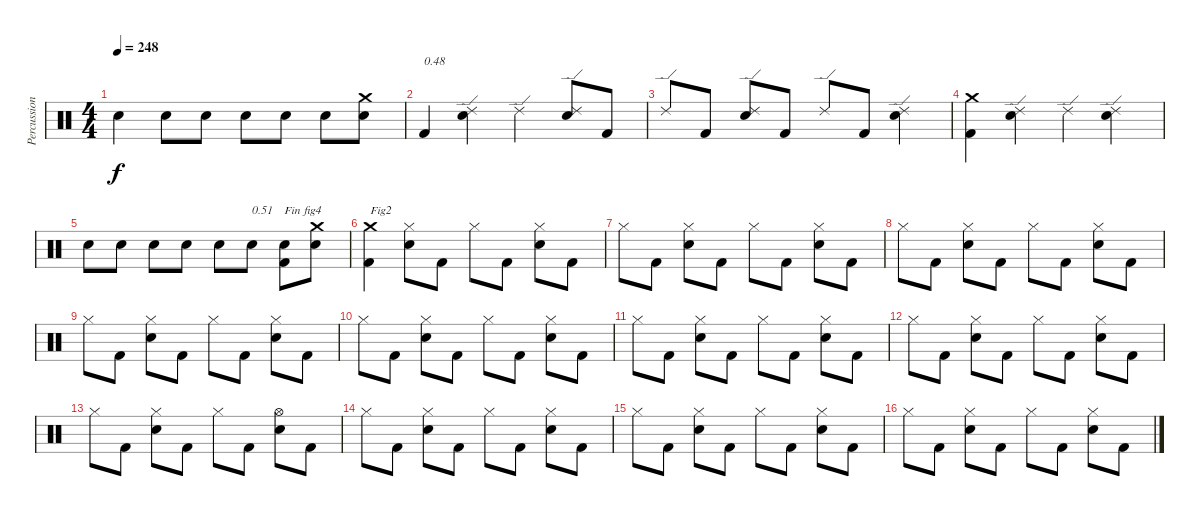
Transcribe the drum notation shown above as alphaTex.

\track ("Percussions" "Percussion") {instrument percussion}
\staff {score}
\articulation defaults
\ts (4 4)
\tempo 248
\clef neutral
\ks c "Electric Snare (hit)".4{dy f} "Electric Snare (hit)".8 "Electric Snare (hit)".8 "Electric Snare (hit)".8 "Electric Snare (hit)".8 "Electric Snare (hit)".8
("Electric Snare (hit)" "Crash medium (hit)").8 |
"Kick (hit) 2".4{txt "0.48"} ("Electric Snare (hit)" "Ride (edge) 2").4 "Ride (edge) 2".4 ("Electric Snare (hit)" "Ride (edge) 2").8 "Kick (hit) 2".8 |
"Ride (edge) 2".8 "Kick (hit) 2".8 ("Electric Snare (hit)" "Ride (edge) 2").8 "Kick (hit) 2".8 "Ride (edge) 2".8 "Kick (hit) 2".8 ("Electric Snare (hit)" "Ride (edge) 2").4 |
("Kick (hit) 2" "Crash medium (hit)").4 ("Electric Snare (hit)" "Ride (edge) 2").4 "Ride (edge) 2".4 ("Electric Snare (hit)" "Ride (edge) 2").4 |
"Electric Snare (hit)".8 "Electric Snare (hit)".8 "Electric Snare (hit)".8 "Electric Snare (hit)".8 "Electric Snare (hit)".8 "Electric Snare (hit)".8{txt "0.51"} ("Kick (hit) 2" "Electric Snare (hit)").8{txt "Fin fig4"} ("Electric Snare (hit)" "Crash medium (hit)").8 |
("Kick (hit) 2" "Crash medium (hit)").4{txt "Fig2"} ("Electric Snare (hit)" "Hi-Hat (closed)").8 "Kick (hit) 2".8 "Hi-Hat (closed)".8 "Kick (hit) 2".8 ("Electric Snare (hit)" "Hi-Hat (closed)").8 "Kick (hit) 2".8 |
"Hi-Hat (closed)".8 "Kick (hit) 2".8 ("Electric Snare (hit)" "Hi-Hat (closed)").8 "Kick (hit) 2".8 "Hi-Hat (closed)".8 "Kick (hit) 2".8 ("Electric Snare (hit)" "Hi-Hat (closed)").8 "Kick (hit) 2".8 |
"Hi-Hat (closed)".8 "Kick (hit) 2".8 ("Electric Snare (hit)" "Hi-Hat (closed)").8 "Kick (hit) 2".8 "Hi-Hat (closed)".8 "Kick (hit) 2".8 ("Electric Snare (hit)" "Hi-Hat (closed)").8 "Kick (hit) 2".8 |
"Hi-Hat (closed)".8 "Kick (hit) 2".8 ("Electric Snare (hit)" "Hi-Hat (closed)").8 "Kick (hit) 2".8 "Hi-Hat (closed)".8 "Kick (hit) 2".8 ("Electric Snare (hit)" "Hi-Hat (closed)").8 "Kick (hit) 2".8 |
"Hi-Hat (closed)".8 "Kick (hit) 2".8 ("Electric Snare (hit)" "Hi-Hat (closed)").8 "Kick (hit) 2".8 "Hi-Hat (closed)".8 "Kick (hit) 2".8 ("Electric Snare (hit)" "Hi-Hat (closed)").8 "Kick (hit) 2".8 |
"Hi-Hat (closed)".8 "Kick (hit) 2".8 ("Electric Snare (hit)" "Hi-Hat (closed)").8 "Kick (hit) 2".8 "Hi-Hat (closed)".8 "Kick (hit) 2".8 ("Electric Snare (hit)" "Hi-Hat (closed)").8 "Kick (hit) 2".8 |
"Hi-Hat (closed)".8 "Kick (hit) 2".8 ("Electric Snare (hit)" "Hi-Hat (closed)").8 "Kick (hit) 2".8 "Hi-Hat (closed)".8 "Kick (hit) 2".8 ("Electric Snare (hit)" "Hi-Hat (closed)").8 "Kick (hit) 2".8 |
"Hi-Hat (closed)".8 "Kick (hit) 2".8 ("Electric Snare (hit)" "Hi-Hat (closed)").8 "Kick (hit) 2".8 "Hi-Hat (closed)".8 "Kick (hit) 2".8 ("Electric Snare (hit)" "Hi-Hat (open)").8 "Kick (hit) 2".8 |
"Hi-Hat (closed)".8 "Kick (hit) 2".8 ("Electric Snare (hit)" "Hi-Hat (closed)").8 "Kick (hit) 2".8 "Hi-Hat (closed)".8 "Kick (hit) 2".8 ("Electric Snare (hit)" "Hi-Hat (closed)").8 "Kick (hit) 2".8 |
"Hi-Hat (closed)".8 "Kick (hit) 2".8 ("Electric Snare (hit)" "Hi-Hat (closed)").8 "Kick (hit) 2".8 "Hi-Hat (closed)".8 "Kick (hit) 2".8 ("Electric Snare (hit)" "Hi-Hat (closed)").8 "Kick (hit) 2".8 |
"Hi-Hat (closed)".8 "Kick (hit) 2".8 ("Electric Snare (hit)" "Hi-Hat (closed)").8 "Kick (hit) 2".8 "Hi-Hat (closed)".8 "Kick (hit) 2".8 ("Electric Snare (hit)" "Hi-Hat (closed)").8 "Kick (hit) 2".8
